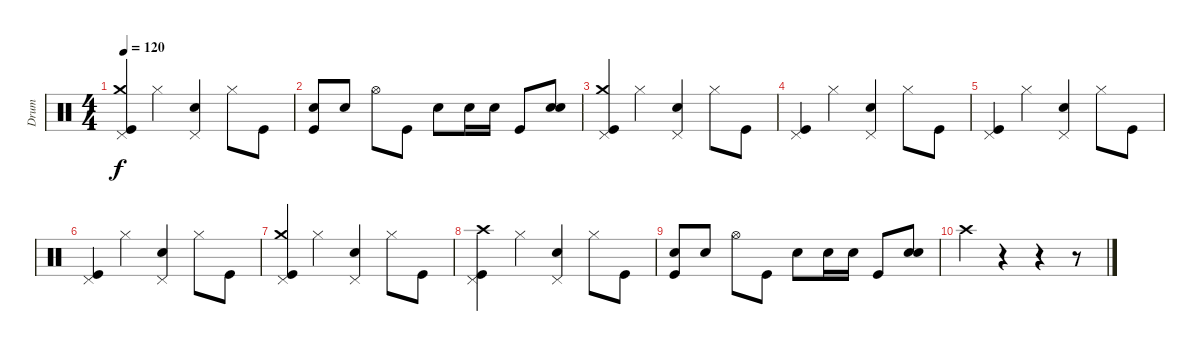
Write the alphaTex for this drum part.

\track ("Drum" "Drum") {instrument percussion}
\staff {score}
\articulation defaults
\ts (4 4)
\tempo 120
\clef neutral
\ks c
("Pedal Hi-Hat (hit)" "Crash medium (hit)" "Kick (hit)").4{dy f} "Hi-Hat (closed)".4 ("Pedal Hi-Hat (hit)" "Snare (hit) 2").4 "Hi-Hat (closed)".8 "Kick (hit)".8 |
("Electric Snare (hit)" "Kick (hit)").8 "Snare (hit) 2".8 "Hi-Hat (open)".8 "Kick (hit)".8 "Snare (hit) 2".8 "Electric Snare (hit)".16 "Electric Snare (hit)".16 "Kick (hit)".8 ("Electric Snare (hit)" "Snare (hit) 2").8 |
("Pedal Hi-Hat (hit)" "Crash medium (hit)" "Kick (hit)").4 "Hi-Hat (closed)".4 ("Pedal Hi-Hat (hit)" "Snare (hit) 2").4 "Hi-Hat (closed)".8 "Kick (hit)".8 |
("Pedal Hi-Hat (hit)" "Kick (hit)").4 "Hi-Hat (closed)".4 ("Pedal Hi-Hat (hit)" "Snare (hit) 2").4 "Hi-Hat (closed)".8 "Kick (hit)".8 |
("Pedal Hi-Hat (hit)" "Kick (hit)").4 "Hi-Hat (closed)".4 ("Pedal Hi-Hat (hit)" "Snare (hit) 2").4 "Hi-Hat (closed)".8 "Kick (hit)".8 |
("Pedal Hi-Hat (hit)" "Kick (hit)").4 "Hi-Hat (closed)".4 ("Pedal Hi-Hat (hit)" "Snare (hit) 2").4 "Hi-Hat (closed)".8 "Kick (hit)".8 |
("Pedal Hi-Hat (hit)" "Crash medium (hit)" "Kick (hit)").4 "Hi-Hat (closed)".4 ("Pedal Hi-Hat (hit)" "Snare (hit) 2").4 "Hi-Hat (closed)".8 "Kick (hit)".8 |
("Pedal Hi-Hat (hit)" "Crash high (hit)" "Kick (hit)").4 "Hi-Hat (closed)".4 ("Pedal Hi-Hat (hit)" "Snare (hit) 2").4 "Hi-Hat (closed)".8 "Kick (hit)".8 |
("Electric Snare (hit)" "Kick (hit)").8 "Snare (hit) 2".8 "Hi-Hat (open)".8 "Kick (hit)".8 "Snare (hit) 2".8 "Electric Snare (hit)".16 "Electric Snare (hit)".16 "Kick (hit)".8 ("Electric Snare (hit)" "Snare (hit) 2").8 |
"Crash high (hit)".4 r.4 r.4 r.8
